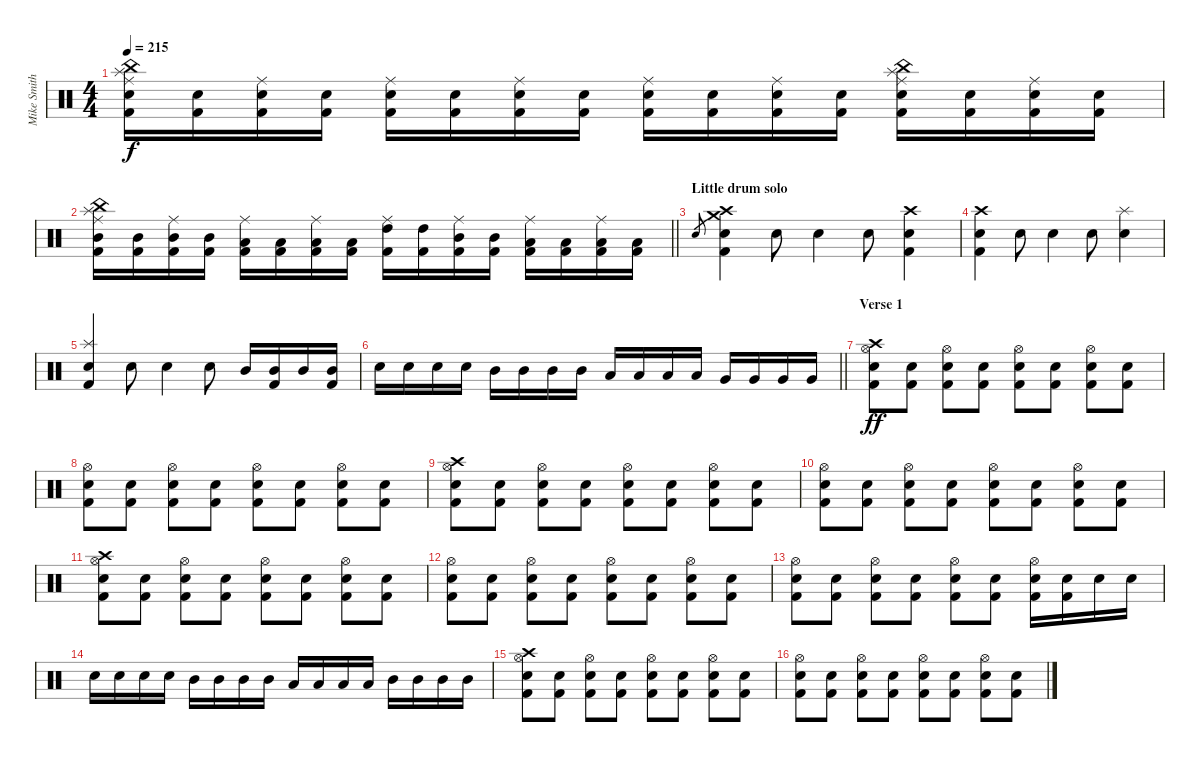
\track ("Mike Smith (Suffocation)" "Mike Smith") {instrument percussion}
\staff {score}
\articulation defaults
\ts (4 4)
\tempo 215
\clef neutral
\ks c
("Ride (middle)" "China (hit)" "Snare (hit) 2" "Splash (hit)" "Kick (hit) 2").16{dy f} ("Snare (hit) 2" "Kick (hit) 2").16 ("Ride (middle)" "Snare (hit) 2" "Kick (hit) 2").16 ("Snare (hit) 2" "Kick (hit) 2").16 ("Ride (middle)" "Snare (hit) 2" "Kick (hit) 2").16 ("Snare (hit) 2" "Kick (hit) 2").16 ("Ride (middle)" "Snare (hit) 2" "Kick (hit) 2").16 ("Snare (hit) 2" "Kick (hit) 2").16 ("Ride (middle)" "Snare (hit) 2" "Kick (hit) 2").16 ("Snare (hit) 2" "Kick (hit) 2").16 ("Ride (middle)" "Snare (hit) 2" "Kick (hit) 2").16 ("Snare (hit) 2" "Kick (hit) 2").16 ("Ride (middle)" "China (hit)" "Snare (hit) 2" "Splash (hit)" "Kick (hit) 2").16 ("Snare (hit) 2" "Kick (hit) 2").16 ("Ride (middle)" "Snare (hit) 2" "Kick (hit) 2").16 ("Snare (hit) 2" "Kick (hit) 2").16 |
\barLineRight lightlight
("Ride (middle)" "China (hit)" "Mid Tom (hit)" "Splash (hit)" "Kick (hit) 2").16 ("Mid Tom (hit)" "Kick (hit) 2").16 ("Ride (middle)" "Mid Tom (hit)" "Kick (hit) 2").16 ("Mid Tom (hit)" "Kick (hit) 2").16 ("Ride (middle)" "Low Tom (hit)" "Kick (hit) 2").16 ("Low Tom (hit)" "Kick (hit) 2").16 ("Ride (middle)" "Low Tom (hit)" "Kick (hit) 2").16 ("Low Tom (hit)" "Kick (hit) 2").16 ("Ride (middle)" "High Tom (hit)" "Kick (hit) 2").16 ("High Tom (hit)" "Kick (hit) 2").16 ("Ride (middle)" "Mid Tom (hit)" "Kick (hit) 2").16 ("Mid Tom (hit)" "Kick (hit) 2").16 ("Ride (middle)" "Low Tom (hit)" "Kick (hit) 2").16 ("Low Tom (hit)" "Kick (hit) 2").16 ("Ride (middle)" "Low Tom (hit)" "Kick (hit) 2").16 ("Low Tom (hit)" "Kick (hit) 2").16 |
\section ("" "Little drum solo")
"Snare (hit) 2".8{gr} ("Crash high (hit)" "Crash medium (hit)" "Snare (hit) 2" "Kick (hit) 2").4 "Snare (hit) 2".8 "Snare (hit) 2".4 "Snare (hit) 2".8 ("Crash high (hit)" "Snare (hit) 2" "Kick (hit) 2").4 |
("Crash high (hit)" "Snare (hit) 2" "Kick (hit) 2").4 "Snare (hit) 2".8 "Snare (hit) 2".4 "Snare (hit) 2".8 ("Splash (hit)" "Snare (hit) 2").4 |
("Splash (hit)" "Snare (hit) 2" "Kick (hit) 2").4 "Snare (hit) 2".8 "Snare (hit) 2".4 "Snare (hit) 2".8 "Mid Tom (hit)".16 ("Mid Tom (hit)" "Kick (hit) 2").16 "Mid Tom (hit)".16 ("Mid Tom (hit)" "Kick (hit) 2").16 |
\barLineRight lightlight "Snare (hit) 2".16 "Snare (hit) 2".16 "Snare (hit) 2".16 "Snare (hit) 2".16 "Mid Tom (hit)".16 "Mid Tom (hit)".16 "Mid Tom (hit)".16 "Mid Tom (hit)".16 "Low Tom (hit)".16 "Low Tom (hit)".16 "Low Tom (hit)".16 "Low Tom (hit)".16 "Very Low Tom (hit)".16 "Very Low Tom (hit)".16 "Very Low Tom (hit)".16 "Very Low Tom (hit)".16
|
\section ("" "Verse 1")
("Crash high (hit)" "Hi-Hat (open)" "Snare (hit) 2" "Kick (hit) 2").8{dy ff volume 15} ("Snare (hit) 2" "Kick (hit) 2").8 ("Hi-Hat (open)" "Snare (hit) 2" "Kick (hit) 2").8 ("Snare (hit) 2" "Kick (hit) 2").8 ("Hi-Hat (open)" "Snare (hit) 2" "Kick (hit) 2").8 ("Snare (hit) 2" "Kick (hit) 2").8 ("Hi-Hat (open)" "Snare (hit) 2" "Kick (hit) 2").8 ("Snare (hit) 2" "Kick (hit) 2").8 |
("Hi-Hat (open)" "Snare (hit) 2" "Kick (hit) 2").8 ("Snare (hit) 2" "Kick (hit) 2").8 ("Hi-Hat (open)" "Snare (hit) 2" "Kick (hit) 2").8 ("Snare (hit) 2" "Kick (hit) 2").8 ("Hi-Hat (open)" "Snare (hit) 2" "Kick (hit) 2").8 ("Snare (hit) 2" "Kick (hit) 2").8 ("Hi-Hat (open)" "Snare (hit) 2" "Kick (hit) 2").8 ("Snare (hit) 2" "Kick (hit) 2").8 |
("Crash high (hit)" "Hi-Hat (open)" "Snare (hit) 2" "Kick (hit) 2").8 ("Snare (hit) 2" "Kick (hit) 2").8 ("Hi-Hat (open)" "Snare (hit) 2" "Kick (hit) 2").8 ("Snare (hit) 2" "Kick (hit) 2").8 ("Hi-Hat (open)" "Snare (hit) 2" "Kick (hit) 2").8 ("Snare (hit) 2" "Kick (hit) 2").8 ("Hi-Hat (open)" "Snare (hit) 2" "Kick (hit) 2").8 ("Snare (hit) 2" "Kick (hit) 2").8 |
("Hi-Hat (open)" "Snare (hit) 2" "Kick (hit) 2").8 ("Snare (hit) 2" "Kick (hit) 2").8 ("Hi-Hat (open)" "Snare (hit) 2" "Kick (hit) 2").8 ("Snare (hit) 2" "Kick (hit) 2").8 ("Hi-Hat (open)" "Snare (hit) 2" "Kick (hit) 2").8 ("Snare (hit) 2" "Kick (hit) 2").8 ("Hi-Hat (open)" "Snare (hit) 2" "Kick (hit) 2").8 ("Snare (hit) 2" "Kick (hit) 2").8 |
("Crash high (hit)" "Hi-Hat (open)" "Snare (hit) 2" "Kick (hit) 2").8 ("Snare (hit) 2" "Kick (hit) 2").8 ("Hi-Hat (open)" "Snare (hit) 2" "Kick (hit) 2").8 ("Snare (hit) 2" "Kick (hit) 2").8 ("Hi-Hat (open)" "Snare (hit) 2" "Kick (hit) 2").8 ("Snare (hit) 2" "Kick (hit) 2").8 ("Hi-Hat (open)" "Snare (hit) 2" "Kick (hit) 2").8 ("Snare (hit) 2" "Kick (hit) 2").8 |
("Hi-Hat (open)" "Snare (hit) 2" "Kick (hit) 2").8 ("Snare (hit) 2" "Kick (hit) 2").8 ("Hi-Hat (open)" "Snare (hit) 2" "Kick (hit) 2").8 ("Snare (hit) 2" "Kick (hit) 2").8 ("Hi-Hat (open)" "Snare (hit) 2" "Kick (hit) 2").8 ("Snare (hit) 2" "Kick (hit) 2").8 ("Hi-Hat (open)" "Snare (hit) 2" "Kick (hit) 2").8 ("Snare (hit) 2" "Kick (hit) 2").8 |
("Hi-Hat (open)" "Snare (hit) 2" "Kick (hit) 2").8 ("Snare (hit) 2" "Kick (hit) 2").8 ("Hi-Hat (open)" "Snare (hit) 2" "Kick (hit) 2").8 ("Snare (hit) 2" "Kick (hit) 2").8 ("Hi-Hat (open)" "Snare (hit) 2" "Kick (hit) 2").8 ("Snare (hit) 2" "Kick (hit) 2").8 ("Hi-Hat (open)" "Snare (hit) 2" "Kick (hit) 2").16 ("Snare (hit) 2" "Kick (hit) 2").16 "Snare (hit) 2".16 "Snare (hit) 2".16 |
"Snare (hit) 2".16 "Snare (hit) 2".16 "Snare (hit) 2".16 "Snare (hit) 2".16 "Mid Tom (hit)".16 "Mid Tom (hit)".16 "Mid Tom (hit)".16 "Mid Tom (hit)".16 "Low Tom (hit)".16 "Low Tom (hit)".16 "Low Tom (hit)".16 "Low Tom (hit)".16 "Mid Tom (hit)".16 "Mid Tom (hit)".16 "Mid Tom (hit)".16 "Mid Tom (hit)".16 |
("Crash high (hit)" "Hi-Hat (open)" "Snare (hit) 2" "Kick (hit) 2").8 ("Snare (hit) 2" "Kick (hit) 2").8 ("Hi-Hat (open)" "Snare (hit) 2" "Kick (hit) 2").8 ("Snare (hit) 2" "Kick (hit) 2").8 ("Hi-Hat (open)" "Snare (hit) 2" "Kick (hit) 2").8 ("Snare (hit) 2" "Kick (hit) 2").8 ("Hi-Hat (open)" "Snare (hit) 2" "Kick (hit) 2").8 ("Snare (hit) 2" "Kick (hit) 2").8 |
("Hi-Hat (open)" "Snare (hit) 2" "Kick (hit) 2").8 ("Snare (hit) 2" "Kick (hit) 2").8 ("Hi-Hat (open)" "Snare (hit) 2" "Kick (hit) 2").8 ("Snare (hit) 2" "Kick (hit) 2").8 ("Hi-Hat (open)" "Snare (hit) 2" "Kick (hit) 2").8 ("Snare (hit) 2" "Kick (hit) 2").8 ("Hi-Hat (open)" "Snare (hit) 2" "Kick (hit) 2").8 ("Snare (hit) 2" "Kick (hit) 2").8
